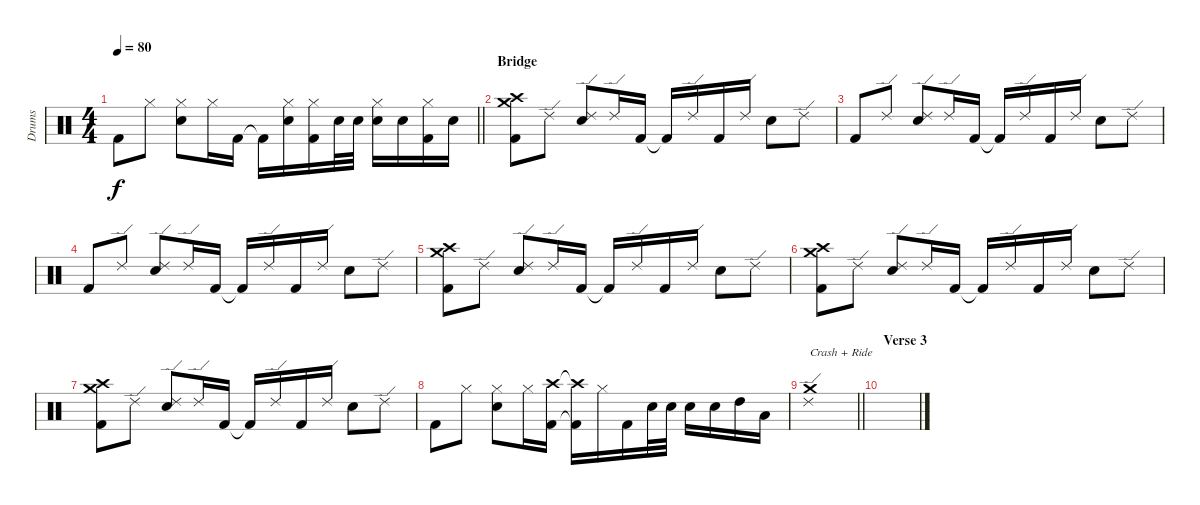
\track ("Drums" "Drums") {instrument percussion}
\staff {score}
\articulation defaults
\ts (4 4)
\tempo 80
\clef neutral
\barLineRight lightlight
\ks c "Kick (hit) 2".8{dy f} "Hi-Hat (closed)".8
("Hi-Hat (closed)" "Snare (hit) 2").8 "Hi-Hat (closed)".16 "Kick (hit) 2".16 "Kick (hit) 2"{t}.16 ("Snare (hit) 2" "Hi-Hat (closed)").16 ("Hi-Hat (closed)" "Kick (hit) 2").16 "Snare (hit) 2".32 "Snare (hit) 2".32 ("Snare (hit) 2" "Hi-Hat (closed)").16 "Snare (hit) 2".16 ("Hi-Hat (closed)" "Kick (hit) 2").16 "Snare (hit) 2".16 |
\section ("" "Bridge")
("Crash medium (hit)" "Crash high (hit)" "Kick (hit) 2").8 "Ride (edge) 2".8 ("Ride (edge) 2" "Snare (hit) 2").8 "Ride (edge) 2".16 "Kick (hit) 2".16 "Kick (hit) 2"{t}.16 "Ride (edge) 2".16 "Kick (hit) 2".16 "Ride (edge) 2".16 "Snare (hit) 2".8 "Ride (edge) 2".8 |
"Kick (hit) 2".8 "Ride (edge) 2".8 ("Ride (edge) 2" "Snare (hit) 2").8 "Ride (edge) 2".16 "Kick (hit) 2".16 "Kick (hit) 2"{t}.16 "Ride (edge) 2".16 "Kick (hit) 2".16 "Ride (edge) 2".16 "Snare (hit) 2".8 "Ride (edge) 2".8 |
"Kick (hit) 2".8 "Ride (edge) 2".8 ("Ride (edge) 2" "Snare (hit) 2").8 "Ride (edge) 2".16 "Kick (hit) 2".16 "Kick (hit) 2"{t}.16 "Ride (edge) 2".16 "Kick (hit) 2".16 "Ride (edge) 2".16 "Snare (hit) 2".8 "Ride (edge) 2".8 |
("Crash medium (hit)" "Crash high (hit)" "Kick (hit) 2").8 "Ride (edge) 2".8 ("Ride (edge) 2" "Snare (hit) 2").8 "Ride (edge) 2".16 "Kick (hit) 2".16 "Kick (hit) 2"{t}.16 "Ride (edge) 2".16 "Kick (hit) 2".16 "Ride (edge) 2".16 "Snare (hit) 2".8 "Ride (edge) 2".8 |
("Crash medium (hit)" "Crash high (hit)" "Kick (hit) 2").8 "Ride (edge) 2".8 ("Ride (edge) 2" "Snare (hit) 2").8 "Ride (edge) 2".16 "Kick (hit) 2".16 "Kick (hit) 2"{t}.16 "Ride (edge) 2".16 "Kick (hit) 2".16 "Ride (edge) 2".16 "Snare (hit) 2".8 "Ride (edge) 2".8 |
("Crash medium (hit)" "Crash high (hit)" "Kick (hit) 2").8 "Ride (edge) 2".8 ("Ride (edge) 2" "Snare (hit) 2").8 "Ride (edge) 2".16 "Kick (hit) 2".16 "Kick (hit) 2"{t}.16 "Ride (edge) 2".16 "Kick (hit) 2".16 "Ride (edge) 2".16 "Snare (hit) 2".8 "Ride (edge) 2".8 |
"Kick (hit) 2".8 "Hi-Hat (closed)".8 ("Hi-Hat (closed)" "Snare (hit) 2").8 "Hi-Hat (closed)".16 ("Crash high (hit)" "Kick (hit) 2").16 ("Crash high (hit)"{t} "Kick (hit) 2"{t}).16 "Hi-Hat (closed)".16 "Kick (hit) 2".16 "Snare (hit) 2".32 "Snare (hit) 2".32 "Snare (hit) 2".16 "Snare (hit) 2".16 "High Tom (hit)".16 "Low Tom (hit)".16 |
\barLineRight lightlight
("Crash medium (hit)" "Ride (edge) 2").1{txt "Crash + Ride"} |
\section ("" "Verse 3")
